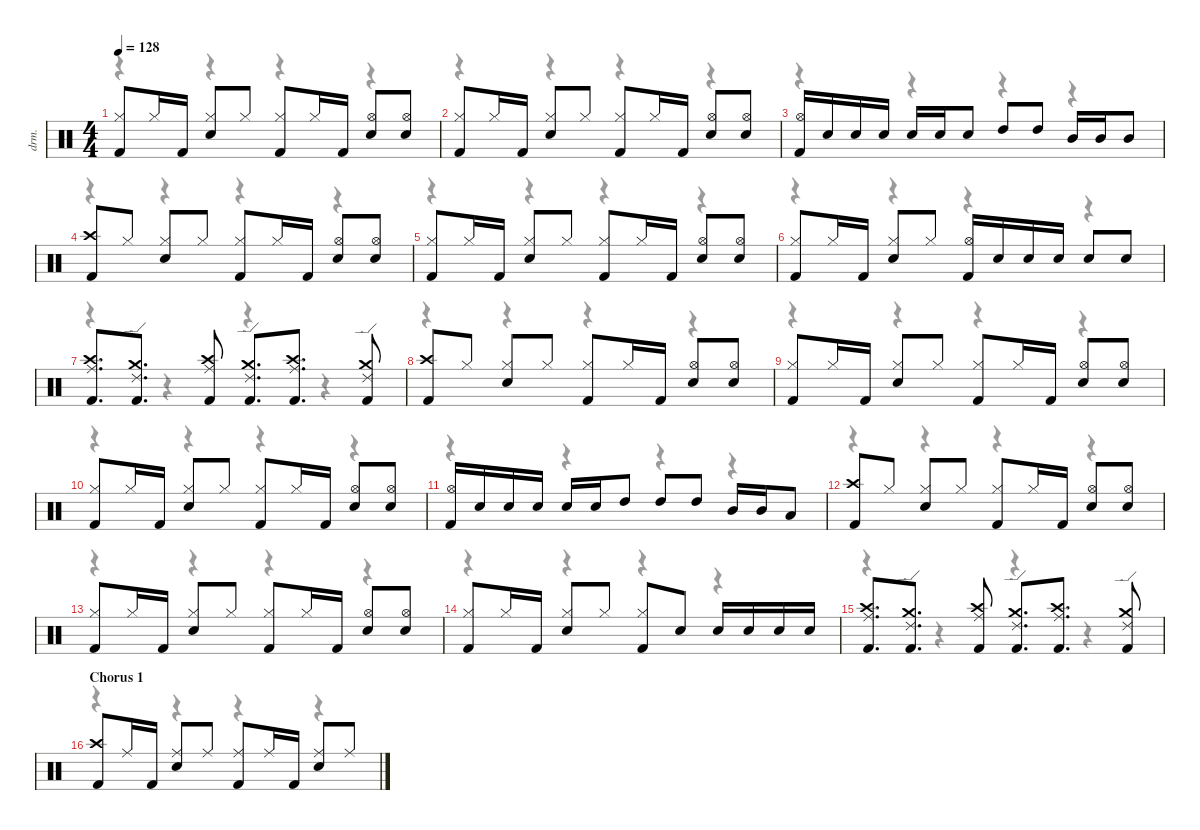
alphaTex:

\defaultSystemsLayout 4
\hideDynamics
\bracketExtendMode nobrackets
\track ("Drums" "drm.") {instrument percussion}
\staff {score}
\articulation defaults
\voice
\ts (4 4)
\tempo 128
\clef neutral
\ks c
("Kick (hit) 2" "Hi-Hat (closed)").8{dy fff} "Hi-Hat (closed)".16{dy p} "Kick (hit) 2".16{dy fff} ("Snare (hit) 2" "Hi-Hat (closed)").8 "Hi-Hat (closed)".8{dy p} ("Kick (hit) 2" "Hi-Hat (closed)").8{dy fff} "Hi-Hat (closed)".16{dy p} "Kick (hit) 2".16{dy fff} ("Snare (hit) 2" "Hi-Hat (open)").8 ("Snare (hit) 2" "Hi-Hat (open)").8 |
("Kick (hit) 2" "Hi-Hat (closed)").8 "Hi-Hat (closed)".16{dy p} "Kick (hit) 2".16{dy fff} ("Snare (hit) 2" "Hi-Hat (closed)").8 "Hi-Hat (closed)".8{dy p} ("Kick (hit) 2" "Hi-Hat (closed)").8{dy fff} "Hi-Hat (closed)".16{dy p} "Kick (hit) 2".16{dy fff} ("Snare (hit) 2" "Hi-Hat (open)").8 ("Snare (hit) 2" "Hi-Hat (open)").8 |
("Kick (hit) 2" "Hi-Hat (open)").16 "Snare (hit) 2".16{dy p} "Snare (hit) 2".16 "Snare (hit) 2".16{dy fff} "Snare (hit) 2".16{dy p} "Snare (hit) 2".16{dy mf} "Snare (hit) 2".8{dy fff} "High Tom (hit)".8 "High Tom (hit)".8 "Mid Tom (hit)".16 "Mid Tom (hit)".16 "Mid Tom (hit)".8 |
("Kick (hit) 2" "Crash high (hit)").8 "Hi-Hat (closed)".8{dy p} ("Snare (hit) 2" "Hi-Hat (closed)").8{dy fff} "Hi-Hat (closed)".8{dy p} ("Kick (hit) 2" "Hi-Hat (closed)").8{dy fff} "Hi-Hat (closed)".16{dy p} "Kick (hit) 2".16{dy fff} ("Snare (hit) 2" "Hi-Hat (open)").8 ("Snare (hit) 2" "Hi-Hat (open)").8 |
("Kick (hit) 2" "Hi-Hat (closed)").8 "Hi-Hat (closed)".16{dy p} "Kick (hit) 2".16{dy fff} ("Snare (hit) 2" "Hi-Hat (closed)").8 "Hi-Hat (closed)".8{dy p} ("Kick (hit) 2" "Hi-Hat (closed)").8{dy fff} "Hi-Hat (closed)".16{dy p} "Kick (hit) 2".16{dy fff} ("Snare (hit) 2" "Hi-Hat (open)").8 ("Snare (hit) 2" "Hi-Hat (open)").8 |
("Kick (hit) 2" "Hi-Hat (closed)").8 "Hi-Hat (closed)".16{dy p} "Kick (hit) 2".16{dy fff} ("Snare (hit) 2" "Hi-Hat (closed)").8 "Hi-Hat (closed)".8{dy p} ("Kick (hit) 2" "Hi-Hat (open)").16{dy fff} "Snare (hit) 2".16{dy pp} "Snare (hit) 2".16{dy p} "Snare (hit) 2".16{dy mf} "Snare (hit) 2".8{dy fff} "Snare (hit) 2".8 |
("Kick (hit) 2" "Ride (middle)" "Crash high (hit)").8{d} ("Kick (hit) 2" "Ride (edge) 2" "Crash medium (hit)").8{d} ("Kick (hit) 2" "Ride (middle)" "Crash high (hit)").8 ("Kick (hit) 2" "Ride (edge) 2" "Crash medium (hit)").8{d} ("Kick (hit) 2" "Ride (middle)" "Crash high (hit)").8{d} ("Kick (hit) 2" "Ride (edge) 2" "Crash medium (hit)").8 |
("Kick (hit) 2" "Crash high (hit)").8 "Hi-Hat (closed)".8{dy p} ("Snare (hit) 2" "Hi-Hat (closed)").8{dy fff} "Hi-Hat (closed)".8{dy p} ("Kick (hit) 2" "Hi-Hat (closed)").8{dy fff} "Hi-Hat (closed)".16{dy p} "Kick (hit) 2".16{dy fff} ("Snare (hit) 2" "Hi-Hat (open)").8 ("Snare (hit) 2" "Hi-Hat (open)").8 |
("Kick (hit) 2" "Hi-Hat (closed)").8 "Hi-Hat (closed)".16{dy p} "Kick (hit) 2".16{dy fff} ("Snare (hit) 2" "Hi-Hat (closed)").8 "Hi-Hat (closed)".8{dy p} ("Kick (hit) 2" "Hi-Hat (closed)").8{dy fff} "Hi-Hat (closed)".16{dy p} "Kick (hit) 2".16{dy fff} ("Snare (hit) 2" "Hi-Hat (open)").8 ("Snare (hit) 2" "Hi-Hat (open)").8 |
("Kick (hit) 2" "Hi-Hat (closed)").8 "Hi-Hat (closed)".16{dy p} "Kick (hit) 2".16{dy fff} ("Snare (hit) 2" "Hi-Hat (closed)").8 "Hi-Hat (closed)".8{dy p} ("Kick (hit) 2" "Hi-Hat (closed)").8{dy fff} "Hi-Hat (closed)".16{dy p} "Kick (hit) 2".16{dy fff} ("Snare (hit) 2" "Hi-Hat (open)").8 ("Snare (hit) 2" "Hi-Hat (open)").8 |
("Kick (hit) 2" "Hi-Hat (open)").16 "Snare (hit) 2".16{dy p} "Snare (hit) 2".16{dy fff} "Snare (hit) 2".16 "Snare (hit) 2".16{dy p} "Snare (hit) 2".16{dy fff} "High Tom (hit)".8 "High Tom (hit)".8 "High Tom (hit)".8 "Mid Tom (hit)".16 "Mid Tom (hit)".16 "Low Tom (hit)".8 |
("Kick (hit) 2" "Crash high (hit)").8 "Hi-Hat (closed)".8{dy p} ("Snare (hit) 2" "Hi-Hat (closed)").8{dy fff} "Hi-Hat (closed)".8{dy p} ("Kick (hit) 2" "Hi-Hat (closed)").8{dy fff} "Hi-Hat (closed)".16{dy p} "Kick (hit) 2".16{dy fff} ("Snare (hit) 2" "Hi-Hat (open)").8 ("Snare (hit) 2" "Hi-Hat (open)").8 |
("Kick (hit) 2" "Hi-Hat (closed)").8 "Hi-Hat (closed)".16{dy p} "Kick (hit) 2".16{dy fff} ("Snare (hit) 2" "Hi-Hat (closed)").8 "Hi-Hat (closed)".8{dy p} ("Kick (hit) 2" "Hi-Hat (closed)").8{dy fff} "Hi-Hat (closed)".16{dy p} "Kick (hit) 2".16{dy fff} ("Snare (hit) 2" "Hi-Hat (open)").8 ("Snare (hit) 2" "Hi-Hat (open)").8 |
("Kick (hit) 2" "Hi-Hat (closed)").8 "Hi-Hat (closed)".16{dy p} "Kick (hit) 2".16{dy fff} ("Snare (hit) 2" "Hi-Hat (closed)").8 "Hi-Hat (closed)".8{dy p} ("Kick (hit) 2" "Hi-Hat (closed)").8{dy fff} "Snare (hit) 2".8 "Snare (hit) 2".16 "Snare (hit) 2".16 "Snare (hit) 2".16 "Snare (hit) 2".16 |
("Kick (hit) 2" "Ride (middle)" "Crash high (hit)").8{d} ("Kick (hit) 2" "Ride (edge) 2" "Crash medium (hit)").8{d} ("Kick (hit) 2" "Ride (middle)" "Crash high (hit)").8 ("Kick (hit) 2" "Ride (edge) 2" "Crash medium (hit)").8{d} ("Kick (hit) 2" "Ride (middle)" "Crash high (hit)").8{d} ("Kick (hit) 2" "Ride (edge) 2" "Crash medium (hit)").8 |
\section ("" "Chorus 1")
("Kick (hit) 2" "Crash high (hit)").8 "Ride (middle)".16{dy mp} "Kick (hit) 2".16{dy fff} ("Snare (hit) 2" "Ride (middle)").8 "Ride (middle)".8{dy mp} ("Kick (hit) 2" "Ride (middle)").8{dy fff} "Ride (middle)".16{dy mp} "Kick (hit) 2".16{dy fff} ("Snare (hit) 2" "Ride (middle)").8 "Ride (middle)".8{dy mp}
\voice
\clef neutral
\ottava regular
\simile none
\ks c
r.4{dy mf} r.4 r.4 r.4 |
r.4 r.4 r.4 r.4 |
r.4 r.4 r.4 r.4 |
r.4 r.4 r.4 r.4 |
r.4 r.4 r.4 r.4 |
r.4 r.4 r.4 r.4 |
r.4 r.4 r.4 r.4 |
r.4 r.4 r.4 r.4 |
r.4 r.4 r.4 r.4 |
r.4 r.4 r.4 r.4 |
r.4 r.4 r.4 r.4 |
r.4 r.4 r.4 r.4 |
r.4 r.4 r.4 r.4 |
r.4 r.4 r.4 r.4 |
r.4 r.4 r.4 r.4 |
r.4 r.4 r.4 r.4
